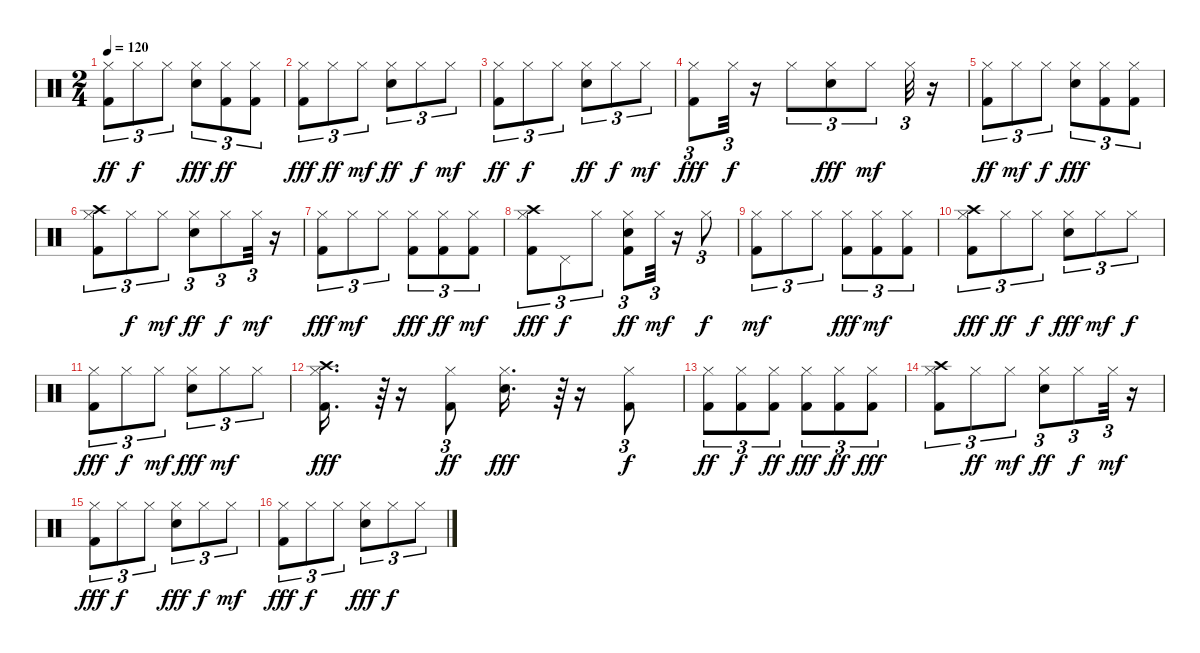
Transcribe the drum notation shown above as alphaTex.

\track "" {instrument percussion}
\staff {score}
\articulation defaults
\ts (2 4)
\tempo 120
\clef neutral
\ks c
("Kick (hit) 2" "Hi-Hat (closed)").8{tu (3 2) dy ff} "Hi-Hat (closed)".8{tu (3 2) dy f} "Hi-Hat (closed)".8{tu (3 2)} ("Snare (hit) 2" "Hi-Hat (closed)").8{tu (3 2) dy fff} ("Hi-Hat (closed)" "Kick (hit) 2").8{tu (3 2) dy ff} ("Hi-Hat (closed)" "Kick (hit) 2").8{tu (3 2)} |
("Hi-Hat (closed)" "Kick (hit) 2").8{tu (3 2) dy fff} "Hi-Hat (closed)".8{tu (3 2) dy ff} "Hi-Hat (closed)".8{tu (3 2) dy mf} ("Snare (hit) 2" "Hi-Hat (closed)").8{tu (3 2) dy ff} "Hi-Hat (closed)".8{tu (3 2) dy f} "Hi-Hat (closed)".8{tu (3 2) dy mf} |
("Kick (hit) 2" "Hi-Hat (closed)").8{tu (3 2) dy ff} "Hi-Hat (closed)".8{tu (3 2) dy f} "Hi-Hat (closed)".8{tu (3 2)} ("Snare (hit) 2" "Hi-Hat (closed)").8{tu (3 2) dy ff} "Hi-Hat (closed)".8{tu (3 2) dy f} "Hi-Hat (closed)".8{tu (3 2) dy mf} |
("Kick (hit) 2" "Hi-Hat (closed)").8{tu (3 2) dy fff} "Hi-Hat (closed)".32{tu (3 2) dy f} r.16 "Hi-Hat (closed)".8{tu (3 2)} ("Hi-Hat (closed)" "Snare (hit) 2").8{tu (3 2) dy fff} "Hi-Hat (closed)".8{tu (3 2) dy mf} "Hi-Hat (closed)".32{tu (3 2)} r.16 |
("Kick (hit) 2" "Hi-Hat (closed)").8{tu (3 2) dy ff} "Hi-Hat (closed)".8{tu (3 2) dy mf} "Hi-Hat (closed)".8{tu (3 2) dy f} ("Snare (hit) 2" "Hi-Hat (closed)").8{tu (3 2) dy fff} ("Hi-Hat (closed)" "Kick (hit) 2").8{tu (3 2)} ("Hi-Hat (closed)" "Kick (hit) 2").8{tu (3 2)} |
("Hi-Hat (closed)" "Crash high (hit)" "Kick (hit) 2").8{tu (3 2)} "Hi-Hat (closed)".8{tu (3 2) dy f} "Hi-Hat (closed)".8{tu (3 2) dy mf} ("Snare (hit) 2" "Hi-Hat (closed)").8{tu (3 2) dy ff} "Hi-Hat (closed)".8{tu (3 2) dy f} "Hi-Hat (closed)".32{tu (3 2) dy mf} r.16 |
("Kick (hit) 2" "Hi-Hat (closed)").8{tu (3 2) dy fff} "Hi-Hat (closed)".8{tu (3 2) dy mf} "Hi-Hat (closed)".8{tu (3 2)} ("Kick (hit) 2" "Hi-Hat (closed)").8{tu (3 2) dy fff} ("Hi-Hat (closed)" "Kick (hit) 2").8{tu (3 2) dy ff} ("Hi-Hat (closed)" "Kick (hit) 2").8{tu (3 2) dy mf} |
("Crash high (hit)" "Kick (hit) 2" "Hi-Hat (closed)").8{tu (3 2) dy fff} "Pedal Hi-Hat (hit)".8{tu (3 2) dy f} "Hi-Hat (closed)".8{tu (3 2)} ("Snare (hit) 2" "Kick (hit) 2" "Hi-Hat (closed)").8{tu (3 2) dy ff} "Hi-Hat (closed)".32{tu (3 2) dy mf} r.16 "Hi-Hat (closed)".8{tu (3 2) dy f} |
("Kick (hit) 2" "Hi-Hat (closed)").8{tu (3 2) dy mf} "Hi-Hat (closed)".8{tu (3 2)} "Hi-Hat (closed)".8{tu (3 2)} ("Kick (hit) 2" "Hi-Hat (closed)").8{tu (3 2) dy fff} ("Kick (hit) 2" "Hi-Hat (closed)").8{tu (3 2) dy mf} ("Kick (hit) 2" "Hi-Hat (closed)").8{tu (3 2)} |
("Crash high (hit)" "Hi-Hat (closed)" "Kick (hit) 2").8{tu (3 2) dy fff} "Hi-Hat (closed)".8{tu (3 2) dy ff} "Hi-Hat (closed)".8{tu (3 2) dy f} ("Snare (hit) 2" "Hi-Hat (closed)").8{tu (3 2) dy fff} "Hi-Hat (closed)".8{tu (3 2) dy mf} "Hi-Hat (closed)".8{tu (3 2) dy f} |
("Kick (hit) 2" "Hi-Hat (closed)").8{tu (3 2) dy fff} "Hi-Hat (closed)".8{tu (3 2) dy f} "Hi-Hat (closed)".8{tu (3 2) dy mf} ("Snare (hit) 2" "Hi-Hat (closed)").8{tu (3 2) dy fff} "Hi-Hat (closed)".8{tu (3 2) dy mf} "Hi-Hat (closed)".8{tu (3 2)} |
("Crash high (hit)" "Hi-Hat (closed)" "Kick (hit) 2").16{d dy fff} r.64{tu (3 2)} r.16 ("Hi-Hat (closed)" "Kick (hit) 2").8{tu (3 2) dy ff} ("Snare (hit) 2" "Hi-Hat (closed)").16{d dy fff} r.64{tu (3 2)} r.16 ("Kick (hit) 2" "Hi-Hat (closed)").8{tu (3 2) dy f} |
("Kick (hit) 2" "Hi-Hat (closed)").8{tu (3 2) dy ff} ("Kick (hit) 2" "Hi-Hat (closed)").8{tu (3 2) dy f} ("Kick (hit) 2" "Hi-Hat (closed)").8{tu (3 2) dy ff} ("Kick (hit) 2" "Hi-Hat (closed)").8{tu (3 2) dy fff} ("Kick (hit) 2" "Hi-Hat (closed)").8{tu (3 2) dy ff} ("Hi-Hat (closed)" "Kick (hit) 2").8{tu (3 2) dy fff} |
("Crash high (hit)" "Hi-Hat (closed)" "Kick (hit) 2").8{tu (3 2)} "Hi-Hat (closed)".8{tu (3 2) dy ff} "Hi-Hat (closed)".8{tu (3 2) dy mf} ("Snare (hit) 2" "Hi-Hat (closed)").8{tu (3 2) dy ff} "Hi-Hat (closed)".8{tu (3 2) dy f} "Hi-Hat (closed)".32{tu (3 2) dy mf} r.16 |
("Hi-Hat (closed)" "Kick (hit) 2").8{tu (3 2) dy fff} "Hi-Hat (closed)".8{tu (3 2) dy f} "Hi-Hat (closed)".8{tu (3 2)} ("Snare (hit) 2" "Hi-Hat (closed)").8{tu (3 2) dy fff} "Hi-Hat (closed)".8{tu (3 2) dy f} "Hi-Hat (closed)".8{tu (3 2) dy mf} |
("Kick (hit) 2" "Hi-Hat (closed)").8{tu (3 2) dy fff} "Hi-Hat (closed)".8{tu (3 2) dy f} "Hi-Hat (closed)".8{tu (3 2)} ("Snare (hit) 2" "Hi-Hat (closed)").8{tu (3 2) dy fff} "Hi-Hat (closed)".8{tu (3 2) dy f} "Hi-Hat (closed)".8{tu (3 2)}
